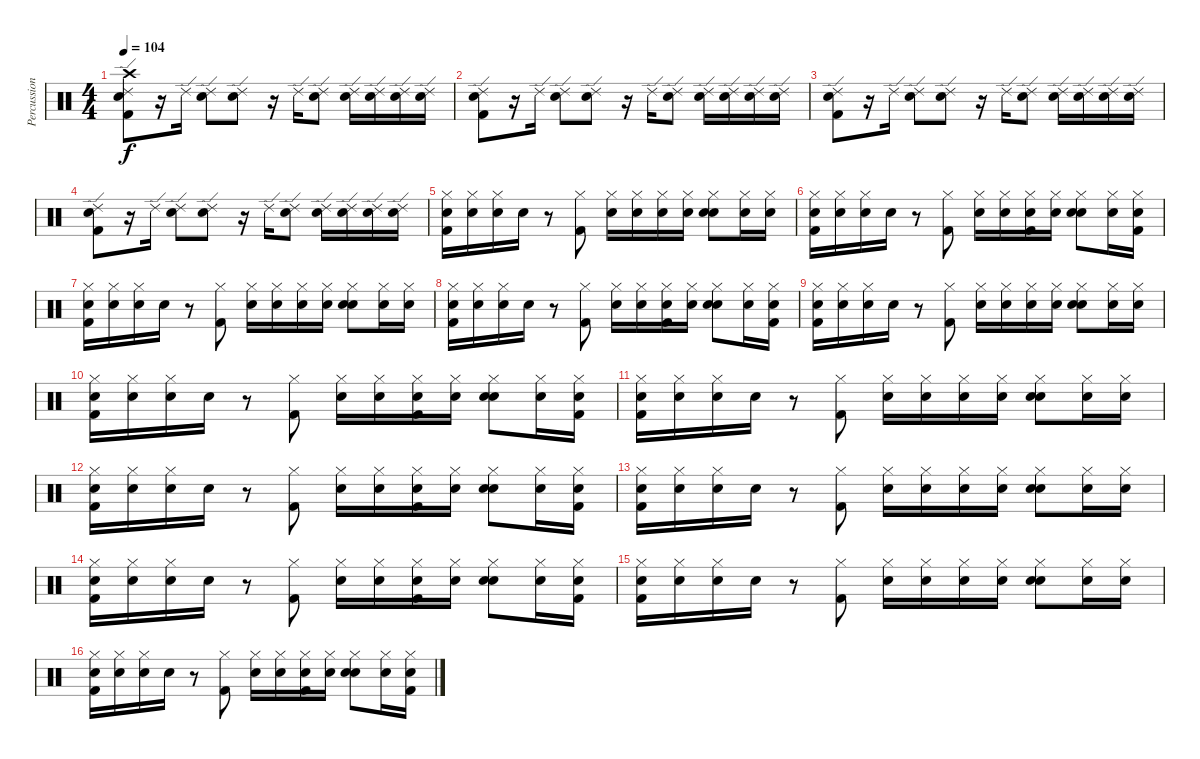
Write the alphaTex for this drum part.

\track ("Percussion" "Percussion") {instrument percussion}
\staff {score}
\articulation defaults
\ts (4 4)
\tempo 104
\clef neutral
\ks c
("Snare (hit)" "Crash high (hit)" "Kick (hit) 2" "Ride (edge) 2").8{dy f} r.16 "Ride (edge) 2".16 ("Snare (hit)" "Ride (edge) 2").8 ("Snare (hit)" "Ride (edge) 2").8 r.16 "Ride (edge) 2".16 ("Snare (hit)" "Ride (edge) 2").8 ("Snare (hit)" "Ride (edge) 2").16 ("Snare (hit)" "Ride (edge) 2").16 ("Snare (hit)" "Ride (edge) 2").16 ("Snare (hit)" "Ride (edge) 2").16 |
("Snare (hit)" "Kick (hit) 2" "Ride (edge) 2").8 r.16 "Ride (edge) 2".16 ("Snare (hit)" "Ride (edge) 2").8 ("Snare (hit)" "Ride (edge) 2").8 r.16 "Ride (edge) 2".16 ("Snare (hit)" "Ride (edge) 2").8 ("Snare (hit)" "Ride (edge) 2").16 ("Snare (hit)" "Ride (edge) 2").16 ("Snare (hit)" "Ride (edge) 2").16 ("Snare (hit)" "Ride (edge) 2").16 |
("Snare (hit)" "Ride (edge) 2" "Kick (hit) 2").8 r.16 "Ride (edge) 2".16 ("Snare (hit)" "Ride (edge) 2").8 ("Snare (hit)" "Ride (edge) 2").8 r.16 "Ride (edge) 2".16 ("Snare (hit)" "Ride (edge) 2").8 ("Snare (hit)" "Ride (edge) 2").16 ("Snare (hit)" "Ride (edge) 2").16 ("Snare (hit)" "Ride (edge) 2").16 ("Snare (hit)" "Ride (edge) 2").16 |
("Snare (hit)" "Ride (edge) 2" "Kick (hit) 2").8 r.16 "Ride (edge) 2".16 ("Snare (hit)" "Ride (edge) 2").8 ("Snare (hit)" "Ride (edge) 2").8 r.16 "Ride (edge) 2".16 ("Snare (hit)" "Ride (edge) 2").8 ("Snare (hit)" "Ride (edge) 2").16 ("Snare (hit)" "Ride (edge) 2").16 ("Snare (hit)" "Ride (edge) 2").16 ("Snare (hit)" "Ride (edge) 2").16 |
("Snare (hit)" "Hi-Hat (closed)" "Kick (hit) 2").16 ("Snare (hit)" "Hi-Hat (closed)").16 ("Snare (hit)" "Hi-Hat (closed)").16 "Electric Snare (hit)".16 r.8 ("Kick (hit) 2" "Hi-Hat (closed)").8 ("Snare (hit)" "Hi-Hat (closed)").16 ("Snare (hit)" "Hi-Hat (closed)").16 ("Snare (hit)" "Hi-Hat (closed)").16 ("Snare (hit)" "Hi-Hat (closed)").16 ("Snare (hit)" "Electric Snare (hit)" "Hi-Hat (closed)").8 ("Snare (hit)" "Hi-Hat (closed)").16 ("Snare (hit)" "Hi-Hat (closed)").16 |
("Snare (hit)" "Kick (hit) 2" "Hi-Hat (closed)").16 ("Snare (hit)" "Hi-Hat (closed)").16 ("Snare (hit)" "Hi-Hat (closed)").16 "Electric Snare (hit)".16 r.8 ("Hi-Hat (closed)" "Kick (hit) 2").8 ("Snare (hit)" "Hi-Hat (closed)").16 ("Snare (hit)" "Hi-Hat (closed)").16 ("Snare (hit)" "Kick (hit) 2" "Hi-Hat (closed)").16 ("Snare (hit)" "Hi-Hat (closed)").16 ("Snare (hit)" "Hi-Hat (closed)" "Electric Snare (hit)").8 ("Snare (hit)" "Hi-Hat (closed)").16 ("Snare (hit)" "Hi-Hat (closed)" "Kick (hit) 2").16 |
("Snare (hit)" "Kick (hit) 2" "Hi-Hat (closed)").16 ("Snare (hit)" "Hi-Hat (closed)").16 ("Snare (hit)" "Hi-Hat (closed)").16 "Electric Snare (hit)".16 r.8 ("Hi-Hat (closed)" "Kick (hit) 2").8 ("Snare (hit)" "Hi-Hat (closed)").16 ("Snare (hit)" "Hi-Hat (closed)").16 ("Snare (hit)" "Hi-Hat (closed)").16 ("Snare (hit)" "Hi-Hat (closed)").16 ("Snare (hit)" "Hi-Hat (closed)" "Electric Snare (hit)").8 ("Snare (hit)" "Hi-Hat (closed)").16 ("Snare (hit)" "Hi-Hat (closed)").16 |
("Snare (hit)" "Hi-Hat (closed)" "Kick (hit) 2").16 ("Snare (hit)" "Hi-Hat (closed)").16 ("Snare (hit)" "Hi-Hat (closed)").16 "Electric Snare (hit)".16 r.8 ("Kick (hit) 2" "Hi-Hat (closed)").8 ("Snare (hit)" "Hi-Hat (closed)").16 ("Snare (hit)" "Hi-Hat (closed)").16 ("Snare (hit)" "Kick (hit) 2" "Hi-Hat (closed)").16 ("Snare (hit)" "Hi-Hat (closed)").16 ("Snare (hit)" "Hi-Hat (closed)" "Electric Snare (hit)").8 ("Snare (hit)" "Hi-Hat (closed)").16 ("Snare (hit)" "Hi-Hat (closed)" "Kick (hit) 2").16 |
("Snare (hit)" "Kick (hit) 2" "Hi-Hat (closed)").16 ("Snare (hit)" "Hi-Hat (closed)").16 ("Snare (hit)" "Hi-Hat (closed)").16 "Electric Snare (hit)".16 r.8 ("Hi-Hat (closed)" "Kick (hit) 2").8 ("Snare (hit)" "Hi-Hat (closed)").16 ("Snare (hit)" "Hi-Hat (closed)").16 ("Snare (hit)" "Hi-Hat (closed)").16 ("Snare (hit)" "Hi-Hat (closed)").16 ("Snare (hit)" "Hi-Hat (closed)" "Electric Snare (hit)").8 ("Snare (hit)" "Hi-Hat (closed)").16 ("Snare (hit)" "Hi-Hat (closed)").16 |
("Snare (hit)" "Hi-Hat (closed)" "Kick (hit) 2").16 ("Snare (hit)" "Hi-Hat (closed)").16 ("Snare (hit)" "Hi-Hat (closed)").16 "Electric Snare (hit)".16 r.8 ("Hi-Hat (closed)" "Kick (hit) 2").8 ("Snare (hit)" "Hi-Hat (closed)").16 ("Snare (hit)" "Hi-Hat (closed)").16 ("Snare (hit)" "Hi-Hat (closed)" "Kick (hit) 2").16 ("Snare (hit)" "Hi-Hat (closed)").16 ("Snare (hit)" "Electric Snare (hit)" "Hi-Hat (closed)").8 ("Snare (hit)" "Hi-Hat (closed)").16 ("Snare (hit)" "Kick (hit) 2" "Hi-Hat (closed)").16 |
("Snare (hit)" "Kick (hit) 2" "Hi-Hat (closed)").16 ("Snare (hit)" "Hi-Hat (closed)").16 ("Snare (hit)" "Hi-Hat (closed)").16 "Electric Snare (hit)".16 r.8 ("Hi-Hat (closed)" "Kick (hit) 2").8 ("Snare (hit)" "Hi-Hat (closed)").16 ("Snare (hit)" "Hi-Hat (closed)").16 ("Snare (hit)" "Hi-Hat (closed)").16 ("Snare (hit)" "Hi-Hat (closed)").16 ("Snare (hit)" "Hi-Hat (closed)" "Electric Snare (hit)").8 ("Snare (hit)" "Hi-Hat (closed)").16 ("Snare (hit)" "Hi-Hat (closed)").16 |
("Snare (hit)" "Hi-Hat (closed)" "Kick (hit) 2").16 ("Snare (hit)" "Hi-Hat (closed)").16 ("Snare (hit)" "Hi-Hat (closed)").16 "Electric Snare (hit)".16 r.8 ("Kick (hit) 2" "Hi-Hat (closed)").8 ("Snare (hit)" "Hi-Hat (closed)").16 ("Snare (hit)" "Hi-Hat (closed)").16 ("Snare (hit)" "Hi-Hat (closed)" "Kick (hit) 2").16 ("Snare (hit)" "Hi-Hat (closed)").16 ("Snare (hit)" "Electric Snare (hit)" "Hi-Hat (closed)").8 ("Snare (hit)" "Hi-Hat (closed)").16 ("Snare (hit)" "Kick (hit) 2" "Hi-Hat (closed)").16 |
("Snare (hit)" "Kick (hit) 2" "Hi-Hat (closed)").16 ("Snare (hit)" "Hi-Hat (closed)").16 ("Snare (hit)" "Hi-Hat (closed)").16 "Electric Snare (hit)".16 r.8 ("Hi-Hat (closed)" "Kick (hit) 2").8 ("Snare (hit)" "Hi-Hat (closed)").16 ("Snare (hit)" "Hi-Hat (closed)").16 ("Snare (hit)" "Hi-Hat (closed)").16 ("Snare (hit)" "Hi-Hat (closed)").16 ("Snare (hit)" "Hi-Hat (closed)" "Electric Snare (hit)").8 ("Snare (hit)" "Hi-Hat (closed)").16 ("Snare (hit)" "Hi-Hat (closed)").16 |
("Snare (hit)" "Hi-Hat (closed)" "Kick (hit) 2").16 ("Snare (hit)" "Hi-Hat (closed)").16 ("Snare (hit)" "Hi-Hat (closed)").16 "Electric Snare (hit)".16 r.8 ("Hi-Hat (closed)" "Kick (hit) 2").8 ("Snare (hit)" "Hi-Hat (closed)").16 ("Snare (hit)" "Hi-Hat (closed)").16 ("Snare (hit)" "Hi-Hat (closed)" "Kick (hit) 2").16 ("Snare (hit)" "Hi-Hat (closed)").16 ("Snare (hit)" "Hi-Hat (closed)" "Electric Snare (hit)").8 ("Snare (hit)" "Hi-Hat (closed)").16 ("Snare (hit)" "Kick (hit) 2" "Hi-Hat (closed)").16 |
("Snare (hit)" "Kick (hit) 2" "Hi-Hat (closed)").16 ("Snare (hit)" "Hi-Hat (closed)").16 ("Snare (hit)" "Hi-Hat (closed)").16 "Electric Snare (hit)".16 r.8 ("Hi-Hat (closed)" "Kick (hit) 2").8 ("Snare (hit)" "Hi-Hat (closed)").16 ("Snare (hit)" "Hi-Hat (closed)").16 ("Snare (hit)" "Hi-Hat (closed)").16 ("Snare (hit)" "Hi-Hat (closed)").16 ("Snare (hit)" "Hi-Hat (closed)" "Electric Snare (hit)").8 ("Snare (hit)" "Hi-Hat (closed)").16 ("Snare (hit)" "Hi-Hat (closed)").16 |
("Snare (hit)" "Hi-Hat (closed)" "Kick (hit) 2").16 ("Snare (hit)" "Hi-Hat (closed)").16 ("Snare (hit)" "Hi-Hat (closed)").16 "Electric Snare (hit)".16 r.8 ("Kick (hit) 2" "Hi-Hat (closed)").8 ("Snare (hit)" "Hi-Hat (closed)").16 ("Snare (hit)" "Hi-Hat (closed)").16 ("Snare (hit)" "Hi-Hat (closed)" "Kick (hit) 2").16 ("Snare (hit)" "Hi-Hat (closed)").16 ("Snare (hit)" "Electric Snare (hit)" "Hi-Hat (closed)").8 ("Snare (hit)" "Hi-Hat (closed)").16 ("Snare (hit)" "Kick (hit) 2" "Hi-Hat (closed)").16
